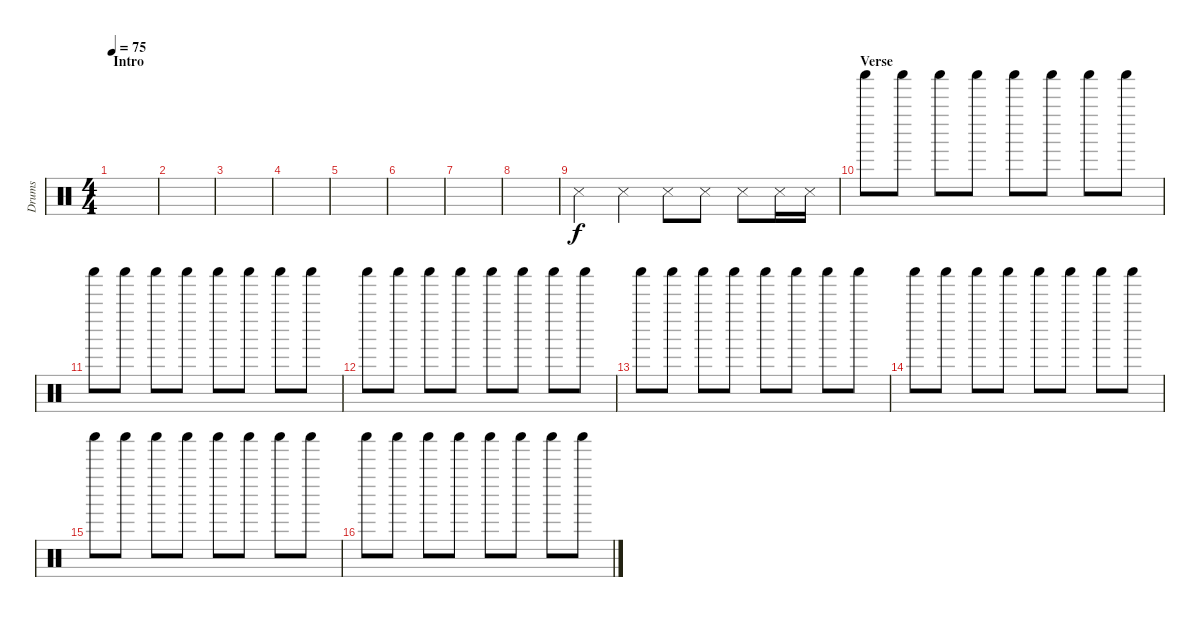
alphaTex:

\track ("Drums" "Drums") {instrument percussion}
\staff {score}
\articulation defaults
\ts (4 4)
\section ("" "Intro")
\tempo 75
\clef neutral
\ks c
|
|
|
|
|
|
|
|
"Metronome (hit)".4 "Metronome (hit)".4 "Metronome (hit)".8 "Metronome (hit)".8 "Metronome (hit)".8 "Metronome (hit)".16 "Metronome (hit)".16 |
\section ("" "Verse")
"Shaker (hit)".8{volume 8} "Shaker (hit)".8 "Shaker (hit)".8 "Shaker (hit)".8 "Shaker (hit)".8 "Shaker (hit)".8 "Shaker (hit)".8 "Shaker (hit)".8 |
"Shaker (hit)".8{volume 8} "Shaker (hit)".8 "Shaker (hit)".8 "Shaker (hit)".8 "Shaker (hit)".8 "Shaker (hit)".8 "Shaker (hit)".8 "Shaker (hit)".8 |
"Shaker (hit)".8{volume 8} "Shaker (hit)".8 "Shaker (hit)".8 "Shaker (hit)".8 "Shaker (hit)".8 "Shaker (hit)".8 "Shaker (hit)".8 "Shaker (hit)".8 |
"Shaker (hit)".8{volume 8} "Shaker (hit)".8 "Shaker (hit)".8 "Shaker (hit)".8 "Shaker (hit)".8 "Shaker (hit)".8 "Shaker (hit)".8 "Shaker (hit)".8 |
"Shaker (hit)".8{volume 8} "Shaker (hit)".8 "Shaker (hit)".8 "Shaker (hit)".8 "Shaker (hit)".8 "Shaker (hit)".8 "Shaker (hit)".8 "Shaker (hit)".8 |
"Shaker (hit)".8{volume 8} "Shaker (hit)".8 "Shaker (hit)".8 "Shaker (hit)".8 "Shaker (hit)".8 "Shaker (hit)".8 "Shaker (hit)".8 "Shaker (hit)".8 |
"Shaker (hit)".8{volume 8} "Shaker (hit)".8 "Shaker (hit)".8 "Shaker (hit)".8 "Shaker (hit)".8 "Shaker (hit)".8 "Shaker (hit)".8 "Shaker (hit)".8
